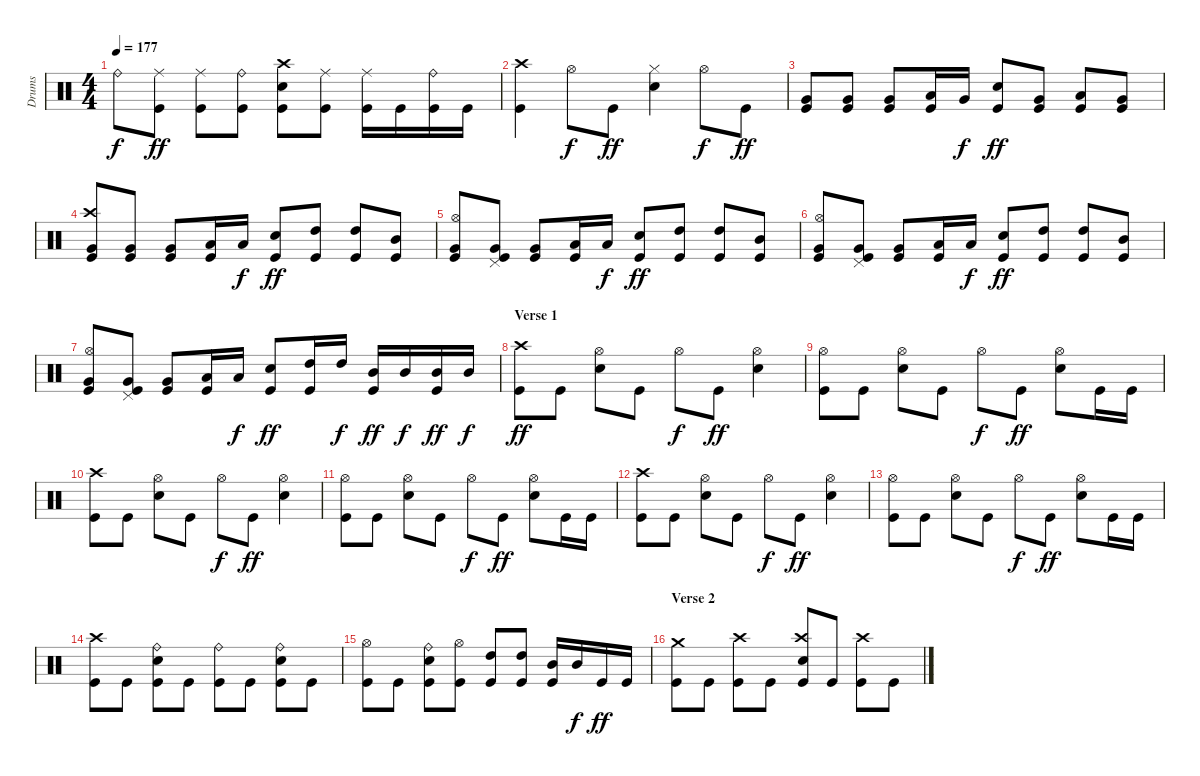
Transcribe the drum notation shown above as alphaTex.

\track ("Drums" "Drums") {instrument percussion}
\staff {score}
\articulation defaults
\ts (4 4)
\tempo 177
\clef neutral
\ks c "Ride (bell)".8{dy f}
("Ride (middle)" "Kick (hit)").8{dy ff} ("Ride (middle)" "Kick (hit)").8 ("Ride (bell)" "Kick (hit)").8 ("Crash high (hit)" "Electric Snare (hit)" "Kick (hit)").8 ("Ride (middle)" "Kick (hit)").8 ("Ride (middle)" "Kick (hit)").16 "Kick (hit)".16 ("Ride (bell)" "Kick (hit)").16 "Kick (hit)".16 |
("Crash high (hit)" "Kick (hit)").4 "Hi-Hat (open)".8{dy f} "Kick (hit)".8{dy ff} ("Hi-Hat (closed)" "Electric Snare (hit)").4 "Hi-Hat (open)".8{dy f} "Kick (hit)".8{dy ff} |
("Very Low Tom (hit)" "Kick (hit)").8 ("Very Low Tom (hit)" "Kick (hit)").8 ("Very Low Tom (hit)" "Kick (hit)").8 ("Low Tom (hit)" "Kick (hit)").16 "Very Low Tom (hit)".16{dy f} ("Electric Snare (hit)" "Kick (hit)").8{dy ff} ("Very Low Tom (hit)" "Kick (hit)").8 ("Low Tom (hit)" "Kick (hit)").8 ("Very Low Tom (hit)" "Kick (hit)").8 |
("Crash high (hit)" "Very Low Tom (hit)" "Kick (hit)").8 ("Very Low Tom (hit)" "Kick (hit)").8 ("Very Low Tom (hit)" "Kick (hit)").8 ("Low Tom (hit)" "Kick (hit)").16 "Low Tom (hit)".16{dy f} ("Electric Snare (hit)" "Kick (hit)").8{dy ff} ("High Tom (hit)" "Kick (hit)").8 ("High Tom (hit)" "Kick (hit)").8 ("Mid Tom (hit)" "Kick (hit)").8 |
("Hi-Hat (open)" "Very Low Tom (hit)" "Kick (hit)").8 ("Pedal Hi-Hat (hit)" "Very Low Tom (hit)" "Kick (hit)").8 ("Very Low Tom (hit)" "Kick (hit)").8 ("Low Tom (hit)" "Kick (hit)").16 "Low Tom (hit)".16{dy f} ("Electric Snare (hit)" "Kick (hit)").8{dy ff} ("High Tom (hit)" "Kick (hit)").8 ("High Tom (hit)" "Kick (hit)").8 ("Mid Tom (hit)" "Kick (hit)").8 |
("Hi-Hat (open)" "Very Low Tom (hit)" "Kick (hit)").8 ("Pedal Hi-Hat (hit)" "Very Low Tom (hit)" "Kick (hit)").8 ("Very Low Tom (hit)" "Kick (hit)").8 ("Low Tom (hit)" "Kick (hit)").16 "Low Tom (hit)".16{dy f} ("Electric Snare (hit)" "Kick (hit)").8{dy ff} ("High Tom (hit)" "Kick (hit)").8 ("High Tom (hit)" "Kick (hit)").8 ("Mid Tom (hit)" "Kick (hit)").8 |
("Hi-Hat (open)" "Very Low Tom (hit)" "Kick (hit)").8 ("Pedal Hi-Hat (hit)" "Very Low Tom (hit)" "Kick (hit)").8 ("Very Low Tom (hit)" "Kick (hit)").8 ("Low Tom (hit)" "Kick (hit)").16 "Low Tom (hit)".16{dy f} ("Electric Snare (hit)" "Kick (hit)").8{dy ff} ("High Tom (hit)" "Kick (hit)").16 "High Tom (hit)".16{dy f} ("Mid Tom (hit)" "Kick (hit)").16{dy ff} "Mid Tom (hit)".16{dy f} ("Mid Tom (hit)" "Kick (hit)").16{dy ff} "Mid Tom (hit)".16{dy f} |
\section ("" "Verse 1")
("Crash high (hit)" "Kick (hit)").8{dy ff} "Kick (hit)".8 ("Hi-Hat (open)" "Electric Snare (hit)").8 "Kick (hit)".8 "Hi-Hat (open)".8{dy f} "Kick (hit)".8{dy ff} ("Hi-Hat (open)" "Electric Snare (hit)").4 |
("Hi-Hat (open)" "Kick (hit)").8 "Kick (hit)".8 ("Hi-Hat (open)" "Electric Snare (hit)").8 "Kick (hit)".8 "Hi-Hat (open)".8{dy f} "Kick (hit)".8{dy ff} ("Hi-Hat (open)" "Electric Snare (hit)").8 "Kick (hit)".16 "Kick (hit)".16 |
("Crash high (hit)" "Kick (hit)").8 "Kick (hit)".8 ("Hi-Hat (open)" "Electric Snare (hit)").8 "Kick (hit)".8 "Hi-Hat (open)".8{dy f} "Kick (hit)".8{dy ff} ("Hi-Hat (open)" "Electric Snare (hit)").4 |
("Hi-Hat (open)" "Kick (hit)").8 "Kick (hit)".8 ("Hi-Hat (open)" "Electric Snare (hit)").8 "Kick (hit)".8 "Hi-Hat (open)".8{dy f} "Kick (hit)".8{dy ff} ("Hi-Hat (open)" "Electric Snare (hit)").8 "Kick (hit)".16 "Kick (hit)".16 |
("Crash high (hit)" "Kick (hit)").8 "Kick (hit)".8 ("Hi-Hat (open)" "Electric Snare (hit)").8 "Kick (hit)".8 "Hi-Hat (open)".8{dy f} "Kick (hit)".8{dy ff} ("Hi-Hat (open)" "Electric Snare (hit)").4 |
("Hi-Hat (open)" "Kick (hit)").8 "Kick (hit)".8 ("Hi-Hat (open)" "Electric Snare (hit)").8 "Kick (hit)".8 "Hi-Hat (open)".8{dy f} "Kick (hit)".8{dy ff} ("Hi-Hat (open)" "Electric Snare (hit)").8 "Kick (hit)".16 "Kick (hit)".16 |
("Crash high (hit)" "Kick (hit)").8 "Kick (hit)".8 ("Ride (bell)" "Electric Snare (hit)" "Kick (hit)").8 "Kick (hit)".8 ("Ride (bell)" "Kick (hit)").8 "Kick (hit)".8 ("Ride (bell)" "Electric Snare (hit)" "Kick (hit)").8 "Kick (hit)".8 |
("Hi-Hat (open)" "Kick (hit)").8 "Kick (hit)".8 ("Ride (bell)" "Electric Snare (hit)" "Kick (hit)").8 ("Hi-Hat (open)" "Kick (hit)").8 ("High Tom (hit)" "Kick (hit)").8 ("High Tom (hit)" "Kick (hit)").8 ("Mid Tom (hit)" "Kick (hit)").16 "Mid Tom (hit)".16{dy f} "Kick (hit)".16{dy ff} "Kick (hit)".16 |
\section ("" "Verse 2")
("Crash medium (hit)" "Kick (hit)").8 "Kick (hit)".8 ("Crash high (hit)" "Kick (hit)").8 "Kick (hit)".8 ("Crash high (hit)" "Electric Snare (hit)" "Kick (hit)").8 "Kick (hit)".8 ("Crash high (hit)" "Kick (hit)").8 "Kick (hit)".8
